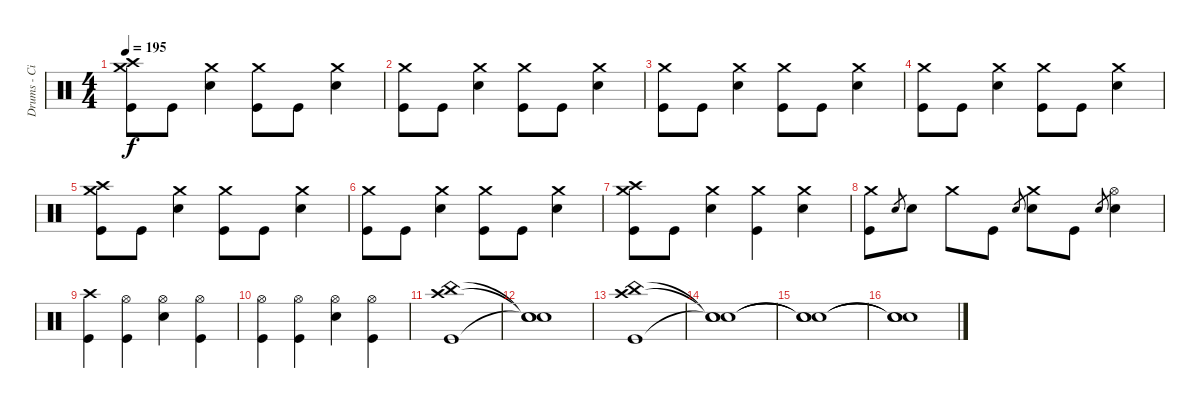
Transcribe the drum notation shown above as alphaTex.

\track ("Drums - Ciro" "Drums - Ci") {instrument percussion}
\staff {score}
\articulation defaults
\ts (4 4)
\tempo 195
\clef neutral
\ks c
("Crash medium (hit)" "Crash high (hit)" "Kick (hit)").8{dy f} "Kick (hit)".8 ("Crash medium (hit)" "Electric Snare (hit)").4 ("Crash medium (hit)" "Kick (hit)").8 "Kick (hit)".8 ("Crash medium (hit)" "Electric Snare (hit)").4 |
("Crash medium (hit)" "Kick (hit)").8 "Kick (hit)".8 ("Crash medium (hit)" "Electric Snare (hit)").4 ("Crash medium (hit)" "Kick (hit)").8 "Kick (hit)".8 ("Crash medium (hit)" "Electric Snare (hit)").4 |
("Crash medium (hit)" "Kick (hit)").8 "Kick (hit)".8 ("Crash medium (hit)" "Electric Snare (hit)").4 ("Crash medium (hit)" "Kick (hit)").8 "Kick (hit)".8 ("Crash medium (hit)" "Electric Snare (hit)").4 |
("Crash medium (hit)" "Kick (hit)").8 "Kick (hit)".8 ("Crash medium (hit)" "Electric Snare (hit)").4 ("Crash medium (hit)" "Kick (hit)").8 "Kick (hit)".8 ("Crash medium (hit)" "Electric Snare (hit)").4 |
("Crash medium (hit)" "Crash high (hit)" "Kick (hit)").8 "Kick (hit)".8 ("Crash medium (hit)" "Electric Snare (hit)").4 ("Crash medium (hit)" "Kick (hit)").8 "Kick (hit)".8 ("Crash medium (hit)" "Electric Snare (hit)").4 |
("Crash medium (hit)" "Kick (hit)").8 "Kick (hit)".8 ("Crash medium (hit)" "Electric Snare (hit)").4 ("Crash medium (hit)" "Kick (hit)").8 "Kick (hit)".8 ("Crash medium (hit)" "Electric Snare (hit)").4 |
("Crash medium (hit)" "Crash high (hit)" "Kick (hit)").8 "Kick (hit)".8 ("Crash medium (hit)" "Electric Snare (hit)").4 ("Crash medium (hit)" "Kick (hit)").4 ("Crash medium (hit)" "Electric Snare (hit)").4 |
("Crash medium (hit)" "Kick (hit)").8 "Electric Snare (hit)".8{gr} "Electric Snare (hit)".8 "Crash medium (hit)".8 "Kick (hit)".8 "Electric Snare (hit)".8{gr} ("Crash medium (hit)" "Electric Snare (hit)").8 "Kick (hit)".8 "Electric Snare (hit)".8{gr} ("Hi-Hat (open)" "Electric Snare (hit)").4 |
("Crash high (hit)" "Kick (hit)").4 ("Hi-Hat (open)" "Kick (hit)").4 ("Hi-Hat (open)" "Electric Snare (hit)").4 ("Hi-Hat (open)" "Kick (hit)").4 |
("Hi-Hat (open)" "Kick (hit)").4 ("Hi-Hat (open)" "Kick (hit)").4 ("Hi-Hat (open)" "Electric Snare (hit)").4 ("Hi-Hat (open)" "Kick (hit)").4 |
("China (hit)" "Crash high (hit)" "Kick (hit)").1 |
("Snare (hit)"{t} "Snare (hit)"{t} "Snare (hit)"{t}).1 |
("China (hit)" "Crash high (hit)" "Kick (hit)").1 |
("Snare (hit)"{t} "Snare (hit)"{t} "Snare (hit)"{t}).1 |
("Snare (hit)"{t} "Snare (hit)"{t} "Snare (hit)"{t}).1 |
("Snare (hit)"{t} "Snare (hit)"{t} "Snare (hit)"{t}).1
